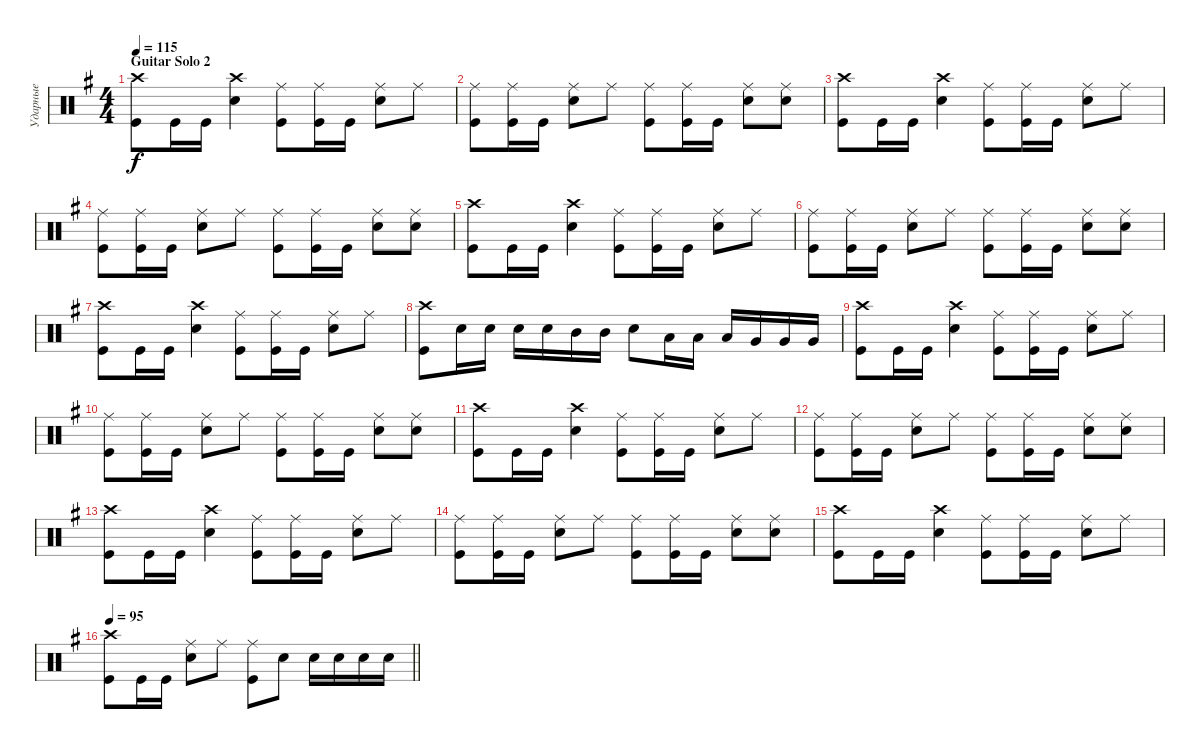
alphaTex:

\track ("Ударные" "Ударные") {instrument percussion}
\staff {score}
\articulation defaults
\ts (4 4)
\section ("" "Guitar Solo 2")
\tempo 115
\clef neutral
\ks eminor
("Kick (hit)" "Crash high (hit)").8{dy f} "Kick (hit)".16 "Kick (hit)".16 ("Snare (hit) 2" "Crash high (hit)").4 ("Kick (hit)" "Ride (middle)").8 ("Kick (hit)" "Ride (middle)").16 "Kick (hit)".16 ("Snare (hit) 2" "Ride (middle)").8 "Ride (middle)".8 |
("Kick (hit)" "Ride (middle)").8 ("Kick (hit)" "Ride (middle)").16 "Kick (hit)".16 ("Snare (hit) 2" "Ride (middle)").8 "Ride (middle)".8 ("Kick (hit)" "Ride (middle)").8 ("Kick (hit)" "Ride (middle)").16 "Kick (hit)".16 ("Snare (hit) 2" "Ride (middle)").8 ("Snare (hit) 2" "Ride (middle)").8 |
("Kick (hit)" "Crash high (hit)").8 "Kick (hit)".16 "Kick (hit)".16 ("Snare (hit) 2" "Crash high (hit)").4 ("Kick (hit)" "Ride (middle)").8 ("Kick (hit)" "Ride (middle)").16 "Kick (hit)".16 ("Snare (hit) 2" "Ride (middle)").8 "Ride (middle)".8 |
("Kick (hit)" "Ride (middle)").8 ("Kick (hit)" "Ride (middle)").16 "Kick (hit)".16 ("Snare (hit) 2" "Ride (middle)").8 "Ride (middle)".8 ("Kick (hit)" "Ride (middle)").8 ("Kick (hit)" "Ride (middle)").16 "Kick (hit)".16 ("Snare (hit) 2" "Ride (middle)").8 ("Snare (hit) 2" "Ride (middle)").8 |
("Kick (hit)" "Crash high (hit)").8 "Kick (hit)".16 "Kick (hit)".16 ("Snare (hit) 2" "Crash high (hit)").4 ("Kick (hit)" "Ride (middle)").8 ("Kick (hit)" "Ride (middle)").16 "Kick (hit)".16 ("Snare (hit) 2" "Ride (middle)").8 "Ride (middle)".8 |
("Kick (hit)" "Ride (middle)").8 ("Kick (hit)" "Ride (middle)").16 "Kick (hit)".16 ("Snare (hit) 2" "Ride (middle)").8 "Ride (middle)".8 ("Kick (hit)" "Ride (middle)").8 ("Kick (hit)" "Ride (middle)").16 "Kick (hit)".16 ("Snare (hit) 2" "Ride (middle)").8 ("Snare (hit) 2" "Ride (middle)").8 |
("Kick (hit)" "Crash high (hit)").8 "Kick (hit)".16 "Kick (hit)".16 ("Snare (hit) 2" "Crash high (hit)").4 ("Kick (hit)" "Ride (middle)").8 ("Kick (hit)" "Ride (middle)").16 "Kick (hit)".16 ("Snare (hit) 2" "Ride (middle)").8 "Ride (middle)".8 |
("Kick (hit)" "Crash high (hit)").8 "Snare (hit) 2".16 "Snare (hit) 2".16 "Snare (hit) 2".16 "Snare (hit) 2".16 "Mid Tom (hit)".16 "Mid Tom (hit)".16 "Snare (hit) 2".8 "Low Tom (hit)".16 "Low Tom (hit)".16 "Low Tom (hit)".16 "Very Low Tom (hit)".16 "Very Low Tom (hit)".16 "Very Low Tom (hit)".16 |
("Kick (hit)" "Crash high (hit)").8 "Kick (hit)".16 "Kick (hit)".16 ("Snare (hit) 2" "Crash high (hit)").4 ("Kick (hit)" "Ride (middle)").8 ("Kick (hit)" "Ride (middle)").16 "Kick (hit)".16 ("Snare (hit) 2" "Ride (middle)").8 "Ride (middle)".8 |
("Kick (hit)" "Ride (middle)").8 ("Kick (hit)" "Ride (middle)").16 "Kick (hit)".16 ("Snare (hit) 2" "Ride (middle)").8 "Ride (middle)".8 ("Kick (hit)" "Ride (middle)").8 ("Kick (hit)" "Ride (middle)").16 "Kick (hit)".16 ("Snare (hit) 2" "Ride (middle)").8 ("Snare (hit) 2" "Ride (middle)").8 |
("Kick (hit)" "Crash high (hit)").8 "Kick (hit)".16 "Kick (hit)".16 ("Snare (hit) 2" "Crash high (hit)").4 ("Kick (hit)" "Ride (middle)").8 ("Kick (hit)" "Ride (middle)").16 "Kick (hit)".16 ("Snare (hit) 2" "Ride (middle)").8 "Ride (middle)".8 |
("Kick (hit)" "Ride (middle)").8 ("Kick (hit)" "Ride (middle)").16 "Kick (hit)".16 ("Snare (hit) 2" "Ride (middle)").8 "Ride (middle)".8 ("Kick (hit)" "Ride (middle)").8 ("Kick (hit)" "Ride (middle)").16 "Kick (hit)".16 ("Snare (hit) 2" "Ride (middle)").8 ("Snare (hit) 2" "Ride (middle)").8 |
("Kick (hit)" "Crash high (hit)").8 "Kick (hit)".16 "Kick (hit)".16 ("Snare (hit) 2" "Crash high (hit)").4 ("Kick (hit)" "Ride (middle)").8 ("Kick (hit)" "Ride (middle)").16 "Kick (hit)".16 ("Snare (hit) 2" "Ride (middle)").8 "Ride (middle)".8 |
("Kick (hit)" "Ride (middle)").8 ("Kick (hit)" "Ride (middle)").16 "Kick (hit)".16 ("Snare (hit) 2" "Ride (middle)").8 "Ride (middle)".8 ("Kick (hit)" "Ride (middle)").8 ("Kick (hit)" "Ride (middle)").16 "Kick (hit)".16 ("Snare (hit) 2" "Ride (middle)").8 ("Snare (hit) 2" "Ride (middle)").8 |
("Kick (hit)" "Crash high (hit)").8 "Kick (hit)".16 "Kick (hit)".16 ("Snare (hit) 2" "Crash high (hit)").4 ("Kick (hit)" "Ride (middle)").8 ("Kick (hit)" "Ride (middle)").16 "Kick (hit)".16 ("Snare (hit) 2" "Ride (middle)").8 "Ride (middle)".8 |
\tempo 95
\barLineRight lightlight
("Kick (hit)" "Crash high (hit)").8 "Kick (hit)".16 "Kick (hit)".16 ("Snare (hit) 2" "Ride (middle)").8 "Ride (middle)".8 ("Kick (hit)" "Ride (middle)").8 "Snare (hit) 2".8 "Snare (hit) 2".16 "Snare (hit) 2".16 "Snare (hit) 2".16 "Snare (hit) 2".16
